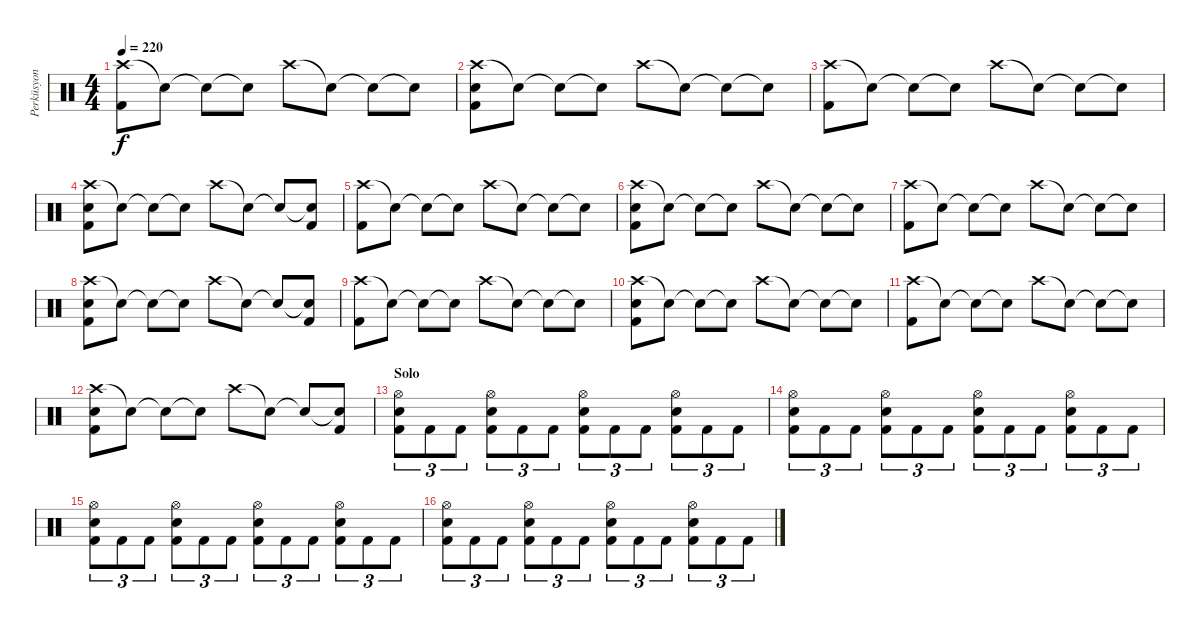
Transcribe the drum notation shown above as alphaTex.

\track ("Perküsyon" "Perküsyon") {instrument percussion}
\staff {score}
\articulation defaults
\ts (4 4)
\tempo 220
\clef neutral
\ks c
("Crash high (hit)" "Kick (hit) 2").8{dy f} "Snare (hit)"{t}.8 "Snare (hit)"{t}.8 "Snare (hit)"{t}.8 "Crash high (hit)".8 "Snare (hit)"{t}.8 "Snare (hit)"{t}.8 "Snare (hit)"{t}.8 |
("Crash high (hit)" "Electric Snare (hit)" "Kick (hit) 2").8 "Snare (hit)"{t}.8 "Snare (hit)"{t}.8 "Snare (hit)"{t}.8 "Crash high (hit)".8 "Snare (hit)"{t}.8 "Snare (hit)"{t}.8 "Snare (hit)"{t}.8 |
("Crash high (hit)" "Kick (hit) 2").8 "Snare (hit)"{t}.8 "Snare (hit)"{t}.8 "Snare (hit)"{t}.8 "Crash high (hit)".8 "Snare (hit)"{t}.8 "Snare (hit)"{t}.8 "Snare (hit)"{t}.8 |
("Crash high (hit)" "Electric Snare (hit)" "Kick (hit) 2").8 "Snare (hit)"{t}.8 "Snare (hit)"{t}.8 "Snare (hit)"{t}.8 "Crash high (hit)".8 "Snare (hit)"{t}.8 "Snare (hit)"{t}.8 ("Snare (hit)"{t} "Kick (hit) 2").8 |
("Crash high (hit)" "Kick (hit) 2").8 "Snare (hit)"{t}.8 "Snare (hit)"{t}.8 "Snare (hit)"{t}.8 "Crash high (hit)".8 "Snare (hit)"{t}.8 "Snare (hit)"{t}.8 "Snare (hit)"{t}.8 |
("Crash high (hit)" "Electric Snare (hit)" "Kick (hit) 2").8 "Snare (hit)"{t}.8 "Snare (hit)"{t}.8 "Snare (hit)"{t}.8 "Crash high (hit)".8 "Snare (hit)"{t}.8 "Snare (hit)"{t}.8 "Snare (hit)"{t}.8 |
("Crash high (hit)" "Kick (hit) 2").8 "Snare (hit)"{t}.8 "Snare (hit)"{t}.8 "Snare (hit)"{t}.8 "Crash high (hit)".8 "Snare (hit)"{t}.8 "Snare (hit)"{t}.8 "Snare (hit)"{t}.8 |
("Crash high (hit)" "Electric Snare (hit)" "Kick (hit) 2").8 "Snare (hit)"{t}.8 "Snare (hit)"{t}.8 "Snare (hit)"{t}.8 "Crash high (hit)".8 "Snare (hit)"{t}.8 "Snare (hit)"{t}.8 ("Snare (hit)"{t} "Kick (hit) 2").8 |
("Crash high (hit)" "Kick (hit) 2").8 "Snare (hit)"{t}.8 "Snare (hit)"{t}.8 "Snare (hit)"{t}.8 "Crash high (hit)".8 "Snare (hit)"{t}.8 "Snare (hit)"{t}.8 "Snare (hit)"{t}.8 |
("Crash high (hit)" "Electric Snare (hit)" "Kick (hit) 2").8 "Snare (hit)"{t}.8 "Snare (hit)"{t}.8 "Snare (hit)"{t}.8 "Crash high (hit)".8 "Snare (hit)"{t}.8 "Snare (hit)"{t}.8 "Snare (hit)"{t}.8 |
("Crash high (hit)" "Kick (hit) 2").8 "Snare (hit)"{t}.8 "Snare (hit)"{t}.8 "Snare (hit)"{t}.8 "Crash high (hit)".8 "Snare (hit)"{t}.8 "Snare (hit)"{t}.8 "Snare (hit)"{t}.8 |
("Crash high (hit)" "Electric Snare (hit)" "Kick (hit) 2").8 "Snare (hit)"{t}.8 "Snare (hit)"{t}.8 "Snare (hit)"{t}.8 "Crash high (hit)".8 "Snare (hit)"{t}.8 "Snare (hit)"{t}.8 ("Snare (hit)"{t} "Kick (hit) 2").8 |
\section ("" "Solo")
("Hi-Hat (open)" "Electric Snare (hit)" "Kick (hit) 2").8{tu (3 2)} "Kick (hit) 2".8{tu (3 2)} "Kick (hit) 2".8{tu (3 2)} ("Hi-Hat (open)" "Electric Snare (hit)" "Kick (hit) 2").8{tu (3 2)} "Kick (hit) 2".8{tu (3 2)} "Kick (hit) 2".8{tu (3 2)} ("Hi-Hat (open)" "Electric Snare (hit)" "Kick (hit) 2").8{tu (3 2)} "Kick (hit) 2".8{tu (3 2)} "Kick (hit) 2".8{tu (3 2)} ("Hi-Hat (open)" "Electric Snare (hit)" "Kick (hit) 2").8{tu (3 2)} "Kick (hit) 2".8{tu (3 2)} "Kick (hit) 2".8{tu (3 2)} |
("Hi-Hat (open)" "Electric Snare (hit)" "Kick (hit) 2").8{tu (3 2)} "Kick (hit) 2".8{tu (3 2)} "Kick (hit) 2".8{tu (3 2)} ("Hi-Hat (open)" "Electric Snare (hit)" "Kick (hit) 2").8{tu (3 2)} "Kick (hit) 2".8{tu (3 2)} "Kick (hit) 2".8{tu (3 2)} ("Hi-Hat (open)" "Electric Snare (hit)" "Kick (hit) 2").8{tu (3 2)} "Kick (hit) 2".8{tu (3 2)} "Kick (hit) 2".8{tu (3 2)} ("Hi-Hat (open)" "Electric Snare (hit)" "Kick (hit) 2").8{tu (3 2)} "Kick (hit) 2".8{tu (3 2)} "Kick (hit) 2".8{tu (3 2)} |
("Hi-Hat (open)" "Electric Snare (hit)" "Kick (hit) 2").8{tu (3 2)} "Kick (hit) 2".8{tu (3 2)} "Kick (hit) 2".8{tu (3 2)} ("Hi-Hat (open)" "Electric Snare (hit)" "Kick (hit) 2").8{tu (3 2)} "Kick (hit) 2".8{tu (3 2)} "Kick (hit) 2".8{tu (3 2)} ("Hi-Hat (open)" "Electric Snare (hit)" "Kick (hit) 2").8{tu (3 2)} "Kick (hit) 2".8{tu (3 2)} "Kick (hit) 2".8{tu (3 2)} ("Hi-Hat (open)" "Electric Snare (hit)" "Kick (hit) 2").8{tu (3 2)} "Kick (hit) 2".8{tu (3 2)} "Kick (hit) 2".8{tu (3 2)} |
("Hi-Hat (open)" "Electric Snare (hit)" "Kick (hit) 2").8{tu (3 2)} "Kick (hit) 2".8{tu (3 2)} "Kick (hit) 2".8{tu (3 2)} ("Hi-Hat (open)" "Electric Snare (hit)" "Kick (hit) 2").8{tu (3 2)} "Kick (hit) 2".8{tu (3 2)} "Kick (hit) 2".8{tu (3 2)} ("Hi-Hat (open)" "Electric Snare (hit)" "Kick (hit) 2").8{tu (3 2)} "Kick (hit) 2".8{tu (3 2)} "Kick (hit) 2".8{tu (3 2)} ("Hi-Hat (open)" "Electric Snare (hit)" "Kick (hit) 2").8{tu (3 2)} "Kick (hit) 2".8{tu (3 2)} "Kick (hit) 2".8{tu (3 2)}
